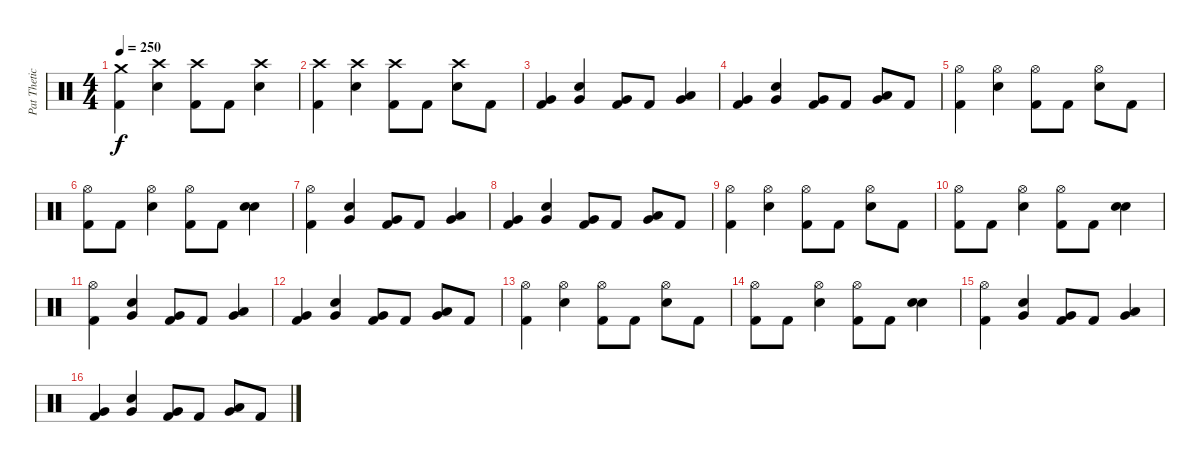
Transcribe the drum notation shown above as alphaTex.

\track ("Pat Thetic" "Pat Thetic") {instrument percussion}
\staff {score}
\articulation defaults
\ts (4 4)
\tempo 250
\clef neutral
\ks c
("Crash medium (hit)" "Kick (hit) 2").4{dy f} ("Crash high (hit)" "Snare (hit) 2").4 ("Crash high (hit)" "Kick (hit) 2").8 "Kick (hit) 2".8 ("Crash high (hit)" "Snare (hit) 2").4 |
("Crash high (hit)" "Kick (hit) 2").4 ("Crash high (hit)" "Snare (hit) 2").4 ("Crash high (hit)" "Kick (hit) 2").8 "Kick (hit) 2".8 ("Crash high (hit)" "Snare (hit) 2").8 "Kick (hit) 2".8 |
("Very Low Tom (hit)" "Kick (hit) 2").4 ("Very Low Tom (hit)" "Snare (hit) 2").4 ("Very Low Tom (hit)" "Kick (hit) 2").8 "Kick (hit) 2".8 ("Very Low Tom (hit)" "Low Tom (hit)").4 |
("Very Low Tom (hit)" "Kick (hit) 2").4 ("Very Low Tom (hit)" "Snare (hit) 2").4 ("Very Low Tom (hit)" "Kick (hit) 2").8 "Kick (hit) 2".8 ("Very Low Tom (hit)" "Low Tom (hit)").8 "Kick (hit) 2".8 |
("Hi-Hat (open)" "Kick (hit) 2").4 ("Hi-Hat (open)" "Snare (hit) 2").4 ("Hi-Hat (open)" "Kick (hit) 2").8 "Kick (hit) 2".8 ("Hi-Hat (open)" "Snare (hit) 2").8 "Kick (hit) 2".8 |
("Hi-Hat (open)" "Kick (hit) 2").8 "Kick (hit) 2".8 ("Hi-Hat (open)" "Snare (hit) 2").4 ("Hi-Hat (open)" "Kick (hit) 2").8 "Kick (hit) 2".8 ("Snare (hit) 2" "Snare (hit) 2").4 |
("Hi-Hat (open)" "Kick (hit) 2").4 ("Very Low Tom (hit)" "Snare (hit) 2").4 ("Very Low Tom (hit)" "Kick (hit) 2").8 "Kick (hit) 2".8 ("Very Low Tom (hit)" "Low Tom (hit)").4 |
("Very Low Tom (hit)" "Kick (hit) 2").4 ("Very Low Tom (hit)" "Snare (hit) 2").4 ("Very Low Tom (hit)" "Kick (hit) 2").8 "Kick (hit) 2".8 ("Very Low Tom (hit)" "Low Tom (hit)").8 "Kick (hit) 2".8 |
("Hi-Hat (open)" "Kick (hit) 2").4 ("Hi-Hat (open)" "Snare (hit) 2").4 ("Hi-Hat (open)" "Kick (hit) 2").8 "Kick (hit) 2".8 ("Hi-Hat (open)" "Snare (hit) 2").8 "Kick (hit) 2".8 |
("Hi-Hat (open)" "Kick (hit) 2").8 "Kick (hit) 2".8 ("Hi-Hat (open)" "Snare (hit) 2").4 ("Hi-Hat (open)" "Kick (hit) 2").8 "Kick (hit) 2".8 ("Snare (hit) 2" "Snare (hit) 2").4 |
("Hi-Hat (open)" "Kick (hit) 2").4 ("Very Low Tom (hit)" "Snare (hit) 2").4 ("Very Low Tom (hit)" "Kick (hit) 2").8 "Kick (hit) 2".8 ("Very Low Tom (hit)" "Low Tom (hit)").4 |
("Very Low Tom (hit)" "Kick (hit) 2").4 ("Very Low Tom (hit)" "Snare (hit) 2").4 ("Very Low Tom (hit)" "Kick (hit) 2").8 "Kick (hit) 2".8 ("Very Low Tom (hit)" "Low Tom (hit)").8 "Kick (hit) 2".8 |
("Hi-Hat (open)" "Kick (hit) 2").4 ("Hi-Hat (open)" "Snare (hit) 2").4 ("Hi-Hat (open)" "Kick (hit) 2").8 "Kick (hit) 2".8 ("Hi-Hat (open)" "Snare (hit) 2").8 "Kick (hit) 2".8 |
("Hi-Hat (open)" "Kick (hit) 2").8 "Kick (hit) 2".8 ("Hi-Hat (open)" "Snare (hit) 2").4 ("Hi-Hat (open)" "Kick (hit) 2").8 "Kick (hit) 2".8 ("Snare (hit) 2" "Snare (hit) 2").4 |
("Hi-Hat (open)" "Kick (hit) 2").4 ("Very Low Tom (hit)" "Snare (hit) 2").4 ("Very Low Tom (hit)" "Kick (hit) 2").8 "Kick (hit) 2".8 ("Very Low Tom (hit)" "Low Tom (hit)").4 |
("Very Low Tom (hit)" "Kick (hit) 2").4 ("Very Low Tom (hit)" "Snare (hit) 2").4 ("Very Low Tom (hit)" "Kick (hit) 2").8 "Kick (hit) 2".8 ("Very Low Tom (hit)" "Low Tom (hit)").8 "Kick (hit) 2".8
